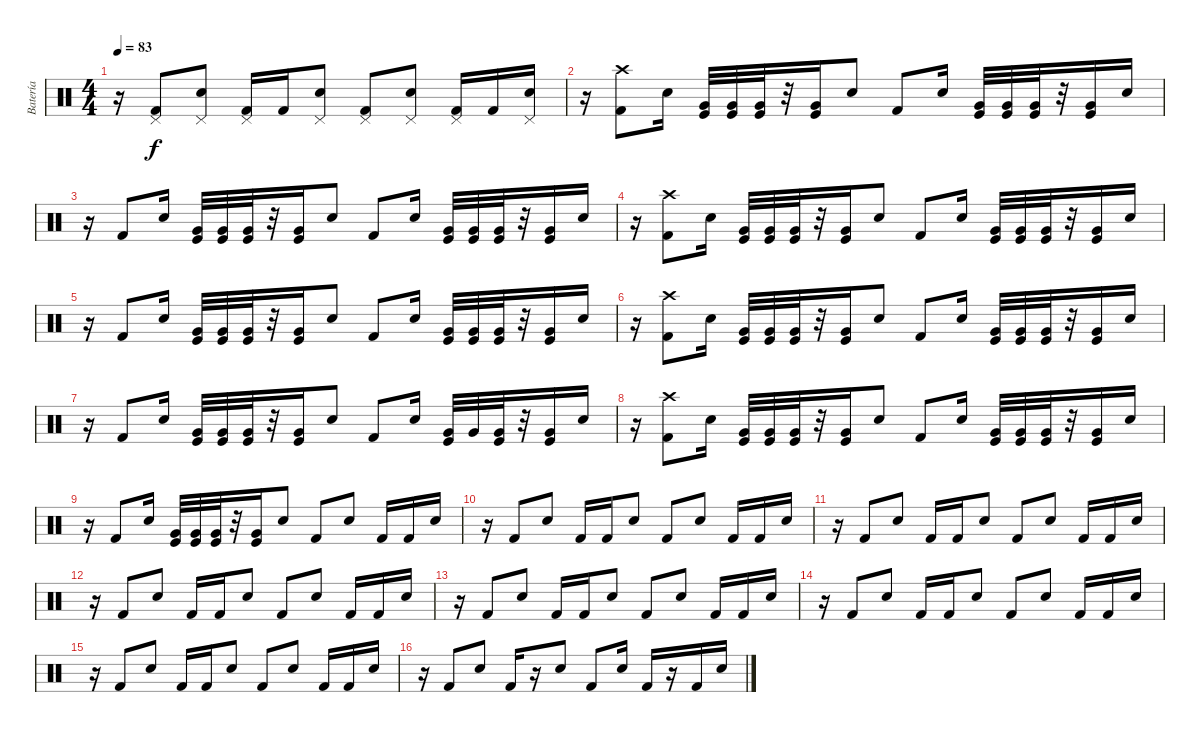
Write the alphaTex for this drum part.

\track ("Batería" "Batería") {instrument percussion}
\staff {score}
\articulation defaults
\ts (4 4)
\tempo 83
\clef neutral
\ks c
r.16{dy f volume 13} ("Pedal Hi-Hat (hit)" "Kick (hit) 2").8 ("Electric Snare (hit)" "Pedal Hi-Hat (hit)").8 ("Pedal Hi-Hat (hit)" "Kick (hit) 2").16 "Kick (hit) 2".16 ("Electric Snare (hit)" "Pedal Hi-Hat (hit)").8 ("Pedal Hi-Hat (hit)" "Kick (hit) 2").8 ("Electric Snare (hit)" "Pedal Hi-Hat (hit)").8 ("Pedal Hi-Hat (hit)" "Kick (hit) 2").16 "Kick (hit) 2".16 ("Electric Snare (hit)" "Pedal Hi-Hat (hit)").16 |
r.16 ("Crash high (hit)" "Kick (hit) 2").8 "Electric Snare (hit)".16 ("Very Low Tom (hit)" "Kick (hit)").32 ("Very Low Tom (hit)" "Kick (hit)").32 ("Very Low Tom (hit)" "Kick (hit)").32 r.32 ("Very Low Tom (hit)" "Kick (hit)").16 "Electric Snare (hit)".8 "Kick (hit) 2".8 "Electric Snare (hit)".16 ("Very Low Tom (hit)" "Kick (hit)").32 ("Very Low Tom (hit)" "Kick (hit)").32 ("Very Low Tom (hit)" "Kick (hit)").32 r.32 ("Very Low Tom (hit)" "Kick (hit)").16 "Electric Snare (hit)".16 |
r.16 "Kick (hit) 2".8 "Electric Snare (hit)".16 ("Very Low Tom (hit)" "Kick (hit)").32 ("Very Low Tom (hit)" "Kick (hit)").32 ("Very Low Tom (hit)" "Kick (hit)").32 r.32 ("Very Low Tom (hit)" "Kick (hit)").16 "Electric Snare (hit)".8 "Kick (hit) 2".8 "Electric Snare (hit)".16 ("Very Low Tom (hit)" "Kick (hit)").32 ("Very Low Tom (hit)" "Kick (hit)").32 ("Very Low Tom (hit)" "Kick (hit)").32 r.32 ("Very Low Tom (hit)" "Kick (hit)").16 "Electric Snare (hit)".16 |
r.16 ("Crash high (hit)" "Kick (hit) 2").8 "Electric Snare (hit)".16 ("Very Low Tom (hit)" "Kick (hit)").32 ("Very Low Tom (hit)" "Kick (hit)").32 ("Very Low Tom (hit)" "Kick (hit)").32 r.32 ("Very Low Tom (hit)" "Kick (hit)").16 "Electric Snare (hit)".8 "Kick (hit) 2".8 "Electric Snare (hit)".16 ("Very Low Tom (hit)" "Kick (hit)").32 ("Very Low Tom (hit)" "Kick (hit)").32 ("Very Low Tom (hit)" "Kick (hit)").32 r.32 ("Very Low Tom (hit)" "Kick (hit)").16 "Electric Snare (hit)".16 |
r.16 "Kick (hit) 2".8 "Electric Snare (hit)".16 ("Very Low Tom (hit)" "Kick (hit)").32 ("Very Low Tom (hit)" "Kick (hit)").32 ("Very Low Tom (hit)" "Kick (hit)").32 r.32 ("Very Low Tom (hit)" "Kick (hit)").16 "Electric Snare (hit)".8 "Kick (hit) 2".8 "Electric Snare (hit)".16 ("Very Low Tom (hit)" "Kick (hit)").32 ("Very Low Tom (hit)" "Kick (hit)").32 ("Very Low Tom (hit)" "Kick (hit)").32 r.32 ("Very Low Tom (hit)" "Kick (hit)").16 "Electric Snare (hit)".16 |
r.16 ("Crash high (hit)" "Kick (hit) 2").8 "Electric Snare (hit)".16 ("Very Low Tom (hit)" "Kick (hit)").32 ("Very Low Tom (hit)" "Kick (hit)").32 ("Very Low Tom (hit)" "Kick (hit)").32 r.32 ("Very Low Tom (hit)" "Kick (hit)").16 "Electric Snare (hit)".8 "Kick (hit) 2".8 "Electric Snare (hit)".16 ("Very Low Tom (hit)" "Kick (hit)").32 ("Very Low Tom (hit)" "Kick (hit)").32 ("Very Low Tom (hit)" "Kick (hit)").32 r.32 ("Very Low Tom (hit)" "Kick (hit)").16 "Electric Snare (hit)".16 |
r.16 "Kick (hit) 2".8 "Electric Snare (hit)".16 ("Very Low Tom (hit)" "Kick (hit)").32 ("Very Low Tom (hit)" "Kick (hit)").32 ("Very Low Tom (hit)" "Kick (hit)").32 r.32 ("Very Low Tom (hit)" "Kick (hit)").16 "Electric Snare (hit)".8 "Kick (hit) 2".8 "Electric Snare (hit)".16 ("Very Low Tom (hit)" "Kick (hit)").32 "Very Low Tom (hit)".32 ("Very Low Tom (hit)" "Kick (hit)").32 r.32 ("Very Low Tom (hit)" "Kick (hit)").16 "Electric Snare (hit)".16 |
r.16 ("Crash high (hit)" "Kick (hit) 2").8 "Electric Snare (hit)".16 ("Very Low Tom (hit)" "Kick (hit)").32 ("Very Low Tom (hit)" "Kick (hit)").32 ("Very Low Tom (hit)" "Kick (hit)").32 r.32 ("Very Low Tom (hit)" "Kick (hit)").16 "Electric Snare (hit)".8 "Kick (hit) 2".8 "Electric Snare (hit)".16 ("Very Low Tom (hit)" "Kick (hit)").32 ("Very Low Tom (hit)" "Kick (hit)").32 ("Very Low Tom (hit)" "Kick (hit)").32 r.32 ("Very Low Tom (hit)" "Kick (hit)").16 "Electric Snare (hit)".16 |
r.16 "Kick (hit) 2".8 "Electric Snare (hit)".16 ("Very Low Tom (hit)" "Kick (hit)").32 ("Very Low Tom (hit)" "Kick (hit)").32 ("Very Low Tom (hit)" "Kick (hit)").32 r.32 ("Very Low Tom (hit)" "Kick (hit)").16 "Electric Snare (hit)".8 "Kick (hit) 2".8 "Electric Snare (hit)".8 "Kick (hit) 2".16 "Kick (hit) 2".16 "Electric Snare (hit)".16 |
r.16{volume 13} "Kick (hit) 2".8 "Electric Snare (hit)".8 "Kick (hit) 2".16 "Kick (hit) 2".16 "Electric Snare (hit)".8 "Kick (hit) 2".8 "Electric Snare (hit)".8 "Kick (hit) 2".16 "Kick (hit) 2".16 "Electric Snare (hit)".16 |
r.16{volume 13} "Kick (hit) 2".8 "Electric Snare (hit)".8 "Kick (hit) 2".16 "Kick (hit) 2".16 "Electric Snare (hit)".8 "Kick (hit) 2".8 "Electric Snare (hit)".8 "Kick (hit) 2".16 "Kick (hit) 2".16 "Electric Snare (hit)".16 |
r.16{volume 13} "Kick (hit) 2".8 "Electric Snare (hit)".8 "Kick (hit) 2".16 "Kick (hit) 2".16 "Electric Snare (hit)".8 "Kick (hit) 2".8 "Electric Snare (hit)".8 "Kick (hit) 2".16 "Kick (hit) 2".16 "Electric Snare (hit)".16 |
r.16{volume 13} "Kick (hit) 2".8 "Electric Snare (hit)".8 "Kick (hit) 2".16 "Kick (hit) 2".16 "Electric Snare (hit)".8 "Kick (hit) 2".8 "Electric Snare (hit)".8 "Kick (hit) 2".16 "Kick (hit) 2".16 "Electric Snare (hit)".16 |
r.16{volume 13} "Kick (hit) 2".8 "Electric Snare (hit)".8 "Kick (hit) 2".16 "Kick (hit) 2".16 "Electric Snare (hit)".8 "Kick (hit) 2".8 "Electric Snare (hit)".8 "Kick (hit) 2".16 "Kick (hit) 2".16 "Electric Snare (hit)".16 |
r.16{volume 13} "Kick (hit) 2".8 "Electric Snare (hit)".8 "Kick (hit) 2".16 "Kick (hit) 2".16 "Electric Snare (hit)".8 "Kick (hit) 2".8 "Electric Snare (hit)".8 "Kick (hit) 2".16 "Kick (hit) 2".16 "Electric Snare (hit)".16 |
r.16 "Kick (hit) 2".8 "Electric Snare (hit)".8 "Kick (hit) 2".16 r.16 "Electric Snare (hit)".8 "Kick (hit) 2".8 "Electric Snare (hit)".16 "Kick (hit) 2".16 r.16 "Kick (hit) 2".16 "Electric Snare (hit)".16
